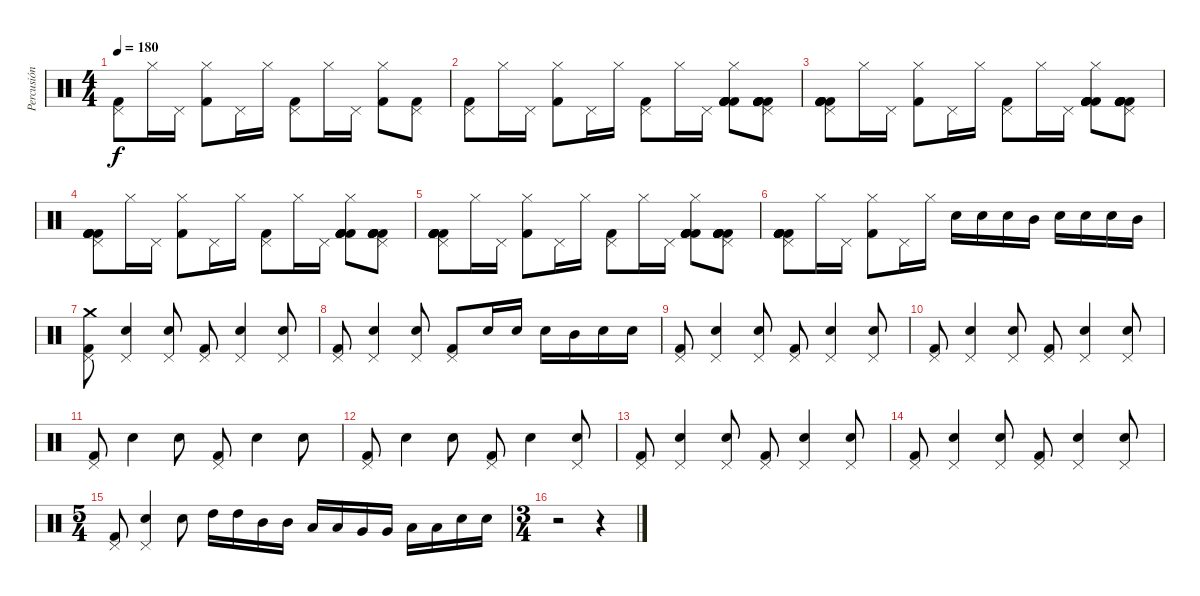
\track ("Percusión" "Percusión") {instrument percussion}
\staff {score}
\articulation defaults
\ts (4 4)
\tempo 180
\clef neutral
\ks c
("Pedal Hi-Hat (hit)" "Kick (hit) 2").8{dy f} "Hi-Hat (closed)".16 "Pedal Hi-Hat (hit)".16 ("Hi-Hat (closed)" "Kick (hit) 2").8 "Pedal Hi-Hat (hit)".16 "Hi-Hat (closed)".16 ("Pedal Hi-Hat (hit)" "Kick (hit) 2").8 "Hi-Hat (closed)".16 "Pedal Hi-Hat (hit)".16 ("Hi-Hat (closed)" "Kick (hit) 2").8 ("Pedal Hi-Hat (hit)" "Kick (hit) 2").8 |
("Pedal Hi-Hat (hit)" "Kick (hit) 2").8 "Hi-Hat (closed)".16 "Pedal Hi-Hat (hit)".16 ("Hi-Hat (closed)" "Kick (hit) 2").8 "Pedal Hi-Hat (hit)".16 "Hi-Hat (closed)".16 ("Pedal Hi-Hat (hit)" "Kick (hit) 2").8 "Hi-Hat (closed)".16 "Pedal Hi-Hat (hit)".16 ("Hi-Hat (closed)" "Kick (hit) 2" "Kick (hit) 2" "Kick (hit) 2" "Kick (hit) 2" "Kick (hit) 2").8 ("Pedal Hi-Hat (hit)" "Kick (hit) 2" "Kick (hit) 2" "Kick (hit) 2" "Kick (hit) 2" "Kick (hit) 2").8 |
("Pedal Hi-Hat (hit)" "Kick (hit) 2" "Kick (hit) 2" "Kick (hit) 2" "Kick (hit) 2" "Kick (hit) 2").8 "Hi-Hat (closed)".16 "Pedal Hi-Hat (hit)".16 ("Hi-Hat (closed)" "Kick (hit) 2").8 "Pedal Hi-Hat (hit)".16 "Hi-Hat (closed)".16 ("Pedal Hi-Hat (hit)" "Kick (hit) 2").8 "Hi-Hat (closed)".16 "Pedal Hi-Hat (hit)".16 ("Hi-Hat (closed)" "Kick (hit) 2" "Kick (hit) 2" "Kick (hit) 2" "Kick (hit) 2" "Kick (hit) 2").8 ("Pedal Hi-Hat (hit)" "Kick (hit) 2" "Kick (hit) 2" "Kick (hit) 2" "Kick (hit) 2" "Kick (hit) 2").8 |
("Pedal Hi-Hat (hit)" "Kick (hit) 2" "Kick (hit) 2" "Kick (hit) 2" "Kick (hit) 2" "Kick (hit) 2").8 "Hi-Hat (closed)".16 "Pedal Hi-Hat (hit)".16 ("Hi-Hat (closed)" "Kick (hit) 2").8 "Pedal Hi-Hat (hit)".16 "Hi-Hat (closed)".16 ("Pedal Hi-Hat (hit)" "Kick (hit) 2").8 "Hi-Hat (closed)".16 "Pedal Hi-Hat (hit)".16 ("Hi-Hat (closed)" "Kick (hit) 2" "Kick (hit) 2" "Kick (hit) 2" "Kick (hit) 2" "Kick (hit) 2").8 ("Pedal Hi-Hat (hit)" "Kick (hit) 2" "Kick (hit) 2" "Kick (hit) 2" "Kick (hit) 2" "Kick (hit) 2").8 |
("Pedal Hi-Hat (hit)" "Kick (hit) 2" "Kick (hit) 2" "Kick (hit) 2" "Kick (hit) 2" "Kick (hit) 2").8 "Hi-Hat (closed)".16 "Pedal Hi-Hat (hit)".16 ("Hi-Hat (closed)" "Kick (hit) 2").8 "Pedal Hi-Hat (hit)".16 "Hi-Hat (closed)".16 ("Pedal Hi-Hat (hit)" "Kick (hit) 2").8 "Hi-Hat (closed)".16 "Pedal Hi-Hat (hit)".16 ("Hi-Hat (closed)" "Kick (hit) 2" "Kick (hit) 2" "Kick (hit) 2" "Kick (hit) 2" "Kick (hit) 2").8 ("Pedal Hi-Hat (hit)" "Kick (hit) 2" "Kick (hit) 2" "Kick (hit) 2" "Kick (hit) 2" "Kick (hit) 2").8 |
("Pedal Hi-Hat (hit)" "Kick (hit) 2" "Kick (hit) 2" "Kick (hit) 2" "Kick (hit) 2" "Kick (hit) 2").8 "Hi-Hat (closed)".16 "Pedal Hi-Hat (hit)".16 ("Hi-Hat (closed)" "Kick (hit) 2").8 "Pedal Hi-Hat (hit)".16 "Hi-Hat (closed)".16 "Electric Snare (hit)".16 "Electric Snare (hit)".16 "Electric Snare (hit)".16 "Mid Tom (hit)".16 "Electric Snare (hit)".16 "Electric Snare (hit)".16 "Electric Snare (hit)".16 "Mid Tom (hit)".16 |
("Kick (hit) 2" "Pedal Hi-Hat (hit)" "Crash medium (hit)").8 ("Electric Snare (hit)" "Pedal Hi-Hat (hit)").4 ("Electric Snare (hit)" "Pedal Hi-Hat (hit)").8 ("Kick (hit) 2" "Pedal Hi-Hat (hit)").8 ("Electric Snare (hit)" "Pedal Hi-Hat (hit)").4 ("Electric Snare (hit)" "Pedal Hi-Hat (hit)").8 |
("Kick (hit) 2" "Pedal Hi-Hat (hit)").8 ("Electric Snare (hit)" "Pedal Hi-Hat (hit)").4 ("Electric Snare (hit)" "Pedal Hi-Hat (hit)").8 ("Kick (hit) 2" "Pedal Hi-Hat (hit)").8 "Electric Snare (hit)".16 "Electric Snare (hit)".16 "Electric Snare (hit)".16 "Mid Tom (hit)".16 "Electric Snare (hit)".16 "Electric Snare (hit)".16 |
("Kick (hit) 2" "Pedal Hi-Hat (hit)").8 ("Electric Snare (hit)" "Pedal Hi-Hat (hit)").4 ("Electric Snare (hit)" "Pedal Hi-Hat (hit)").8 ("Kick (hit) 2" "Pedal Hi-Hat (hit)").8 ("Electric Snare (hit)" "Pedal Hi-Hat (hit)").4 ("Electric Snare (hit)" "Pedal Hi-Hat (hit)").8 |
("Kick (hit) 2" "Pedal Hi-Hat (hit)").8 ("Electric Snare (hit)" "Pedal Hi-Hat (hit)").4 ("Electric Snare (hit)" "Pedal Hi-Hat (hit)").8 ("Kick (hit) 2" "Pedal Hi-Hat (hit)").8 ("Electric Snare (hit)" "Pedal Hi-Hat (hit)").4 ("Electric Snare (hit)" "Pedal Hi-Hat (hit)").8 |
("Kick (hit) 2" "Pedal Hi-Hat (hit)").8 "Electric Snare (hit)".4 "Electric Snare (hit)".8 ("Kick (hit) 2" "Pedal Hi-Hat (hit)").8 "Electric Snare (hit)".4 "Electric Snare (hit)".8 |
("Kick (hit) 2" "Pedal Hi-Hat (hit)").8 "Electric Snare (hit)".4 "Electric Snare (hit)".8 ("Kick (hit) 2" "Pedal Hi-Hat (hit)").8 "Electric Snare (hit)".4 ("Electric Snare (hit)" "Pedal Hi-Hat (hit)").8 |
("Kick (hit) 2" "Pedal Hi-Hat (hit)").8 ("Electric Snare (hit)" "Pedal Hi-Hat (hit)").4 ("Electric Snare (hit)" "Pedal Hi-Hat (hit)").8 ("Kick (hit) 2" "Pedal Hi-Hat (hit)").8 ("Electric Snare (hit)" "Pedal Hi-Hat (hit)").4 ("Electric Snare (hit)" "Pedal Hi-Hat (hit)").8 |
("Kick (hit) 2" "Pedal Hi-Hat (hit)").8 ("Electric Snare (hit)" "Pedal Hi-Hat (hit)").4 ("Electric Snare (hit)" "Pedal Hi-Hat (hit)").8 ("Kick (hit) 2" "Pedal Hi-Hat (hit)").8 ("Electric Snare (hit)" "Pedal Hi-Hat (hit)").4 ("Electric Snare (hit)" "Pedal Hi-Hat (hit)").8 |
\ts (5 4)
("Kick (hit) 2" "Pedal Hi-Hat (hit)").8 ("Electric Snare (hit)" "Pedal Hi-Hat (hit)").4 "Electric Snare (hit)".8 "High Tom (hit)".16 "High Tom (hit)".16 "Mid Tom (hit)".16 "Mid Tom (hit)".16 "Low Tom (hit)".16 "Low Tom (hit)".16 "Very Low Tom (hit)".16 "Very Low Tom (hit)".16 "Low Floor Tom (hit)".16 "Low Floor Tom (hit)".16 "Electric Snare (hit)".16 "Electric Snare (hit)".16 |
\ts (3 4)
r.2 r.4
